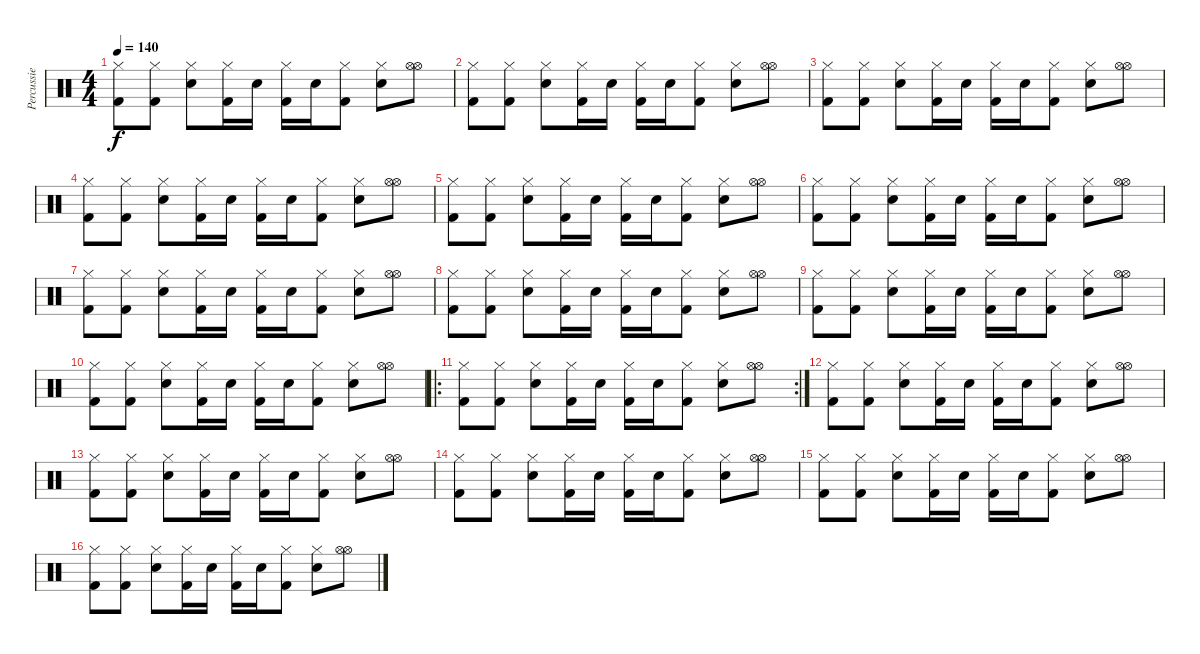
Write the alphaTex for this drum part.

\track ("Percussie" "Percussie") {instrument percussion}
\staff {score}
\articulation defaults
\ts (4 4)
\tempo 140
\clef neutral
\ks c
("Hi-Hat (closed)" "Kick (hit) 2").8{dy f} ("Hi-Hat (closed)" "Kick (hit) 2").8 ("Hi-Hat (closed)" "Snare (hit) 2").8 ("Hi-Hat (closed)" "Kick (hit) 2").16 "Snare (hit) 2".16 ("Hi-Hat (closed)" "Kick (hit) 2").16 "Snare (hit) 2".16 ("Hi-Hat (closed)" "Kick (hit) 2").8 ("Hi-Hat (closed)" "Snare (hit) 2").8 ("Hi-Hat (open)" "Hi-Hat (open)").8 |
("Hi-Hat (closed)" "Kick (hit) 2").8 ("Hi-Hat (closed)" "Kick (hit) 2").8 ("Hi-Hat (closed)" "Snare (hit) 2").8 ("Hi-Hat (closed)" "Kick (hit) 2").16 "Snare (hit) 2".16 ("Hi-Hat (closed)" "Kick (hit) 2").16 "Snare (hit) 2".16 ("Hi-Hat (closed)" "Kick (hit) 2").8 ("Hi-Hat (closed)" "Snare (hit) 2").8 ("Hi-Hat (open)" "Hi-Hat (open)").8 |
("Hi-Hat (closed)" "Kick (hit) 2").8 ("Hi-Hat (closed)" "Kick (hit) 2").8 ("Hi-Hat (closed)" "Snare (hit) 2").8 ("Hi-Hat (closed)" "Kick (hit) 2").16 "Snare (hit) 2".16 ("Hi-Hat (closed)" "Kick (hit) 2").16 "Snare (hit) 2".16 ("Hi-Hat (closed)" "Kick (hit) 2").8 ("Hi-Hat (closed)" "Snare (hit) 2").8 ("Hi-Hat (open)" "Hi-Hat (open)").8 |
("Hi-Hat (closed)" "Kick (hit) 2").8 ("Hi-Hat (closed)" "Kick (hit) 2").8 ("Hi-Hat (closed)" "Snare (hit) 2").8 ("Hi-Hat (closed)" "Kick (hit) 2").16 "Snare (hit) 2".16 ("Hi-Hat (closed)" "Kick (hit) 2").16 "Snare (hit) 2".16 ("Hi-Hat (closed)" "Kick (hit) 2").8 ("Hi-Hat (closed)" "Snare (hit) 2").8 ("Hi-Hat (open)" "Hi-Hat (open)").8 |
("Hi-Hat (closed)" "Kick (hit) 2").8 ("Hi-Hat (closed)" "Kick (hit) 2").8 ("Hi-Hat (closed)" "Snare (hit) 2").8 ("Hi-Hat (closed)" "Kick (hit) 2").16 "Snare (hit) 2".16 ("Hi-Hat (closed)" "Kick (hit) 2").16 "Snare (hit) 2".16 ("Hi-Hat (closed)" "Kick (hit) 2").8 ("Hi-Hat (closed)" "Snare (hit) 2").8 ("Hi-Hat (open)" "Hi-Hat (open)").8 |
("Hi-Hat (closed)" "Kick (hit) 2").8 ("Hi-Hat (closed)" "Kick (hit) 2").8 ("Hi-Hat (closed)" "Snare (hit) 2").8 ("Hi-Hat (closed)" "Kick (hit) 2").16 "Snare (hit) 2".16 ("Hi-Hat (closed)" "Kick (hit) 2").16 "Snare (hit) 2".16 ("Hi-Hat (closed)" "Kick (hit) 2").8 ("Hi-Hat (closed)" "Snare (hit) 2").8 ("Hi-Hat (open)" "Hi-Hat (open)").8 |
("Hi-Hat (closed)" "Kick (hit) 2").8 ("Hi-Hat (closed)" "Kick (hit) 2").8 ("Hi-Hat (closed)" "Snare (hit) 2").8 ("Hi-Hat (closed)" "Kick (hit) 2").16 "Snare (hit) 2".16 ("Hi-Hat (closed)" "Kick (hit) 2").16 "Snare (hit) 2".16 ("Hi-Hat (closed)" "Kick (hit) 2").8 ("Hi-Hat (closed)" "Snare (hit) 2").8 ("Hi-Hat (open)" "Hi-Hat (open)").8 |
("Hi-Hat (closed)" "Kick (hit) 2").8 ("Hi-Hat (closed)" "Kick (hit) 2").8 ("Hi-Hat (closed)" "Snare (hit) 2").8 ("Hi-Hat (closed)" "Kick (hit) 2").16 "Snare (hit) 2".16 ("Hi-Hat (closed)" "Kick (hit) 2").16 "Snare (hit) 2".16 ("Hi-Hat (closed)" "Kick (hit) 2").8 ("Hi-Hat (closed)" "Snare (hit) 2").8 ("Hi-Hat (open)" "Hi-Hat (open)").8 |
("Hi-Hat (closed)" "Kick (hit) 2").8 ("Hi-Hat (closed)" "Kick (hit) 2").8 ("Hi-Hat (closed)" "Snare (hit) 2").8 ("Hi-Hat (closed)" "Kick (hit) 2").16 "Snare (hit) 2".16 ("Hi-Hat (closed)" "Kick (hit) 2").16 "Snare (hit) 2".16 ("Hi-Hat (closed)" "Kick (hit) 2").8 ("Hi-Hat (closed)" "Snare (hit) 2").8 ("Hi-Hat (open)" "Hi-Hat (open)").8 |
("Hi-Hat (closed)" "Kick (hit) 2").8 ("Hi-Hat (closed)" "Kick (hit) 2").8 ("Hi-Hat (closed)" "Snare (hit) 2").8 ("Hi-Hat (closed)" "Kick (hit) 2").16 "Snare (hit) 2".16 ("Hi-Hat (closed)" "Kick (hit) 2").16 "Snare (hit) 2".16 ("Hi-Hat (closed)" "Kick (hit) 2").8 ("Hi-Hat (closed)" "Snare (hit) 2").8 ("Hi-Hat (open)" "Hi-Hat (open)").8 |
\ro
\rc 2
("Hi-Hat (closed)" "Kick (hit) 2").8 ("Hi-Hat (closed)" "Kick (hit) 2").8 ("Hi-Hat (closed)" "Snare (hit) 2").8 ("Hi-Hat (closed)" "Kick (hit) 2").16 "Snare (hit) 2".16 ("Hi-Hat (closed)" "Kick (hit) 2").16 "Snare (hit) 2".16 ("Hi-Hat (closed)" "Kick (hit) 2").8 ("Hi-Hat (closed)" "Snare (hit) 2").8 ("Hi-Hat (open)" "Hi-Hat (open)").8 |
("Hi-Hat (closed)" "Kick (hit) 2").8 ("Hi-Hat (closed)" "Kick (hit) 2").8 ("Hi-Hat (closed)" "Snare (hit) 2").8 ("Hi-Hat (closed)" "Kick (hit) 2").16 "Snare (hit) 2".16 ("Hi-Hat (closed)" "Kick (hit) 2").16 "Snare (hit) 2".16 ("Hi-Hat (closed)" "Kick (hit) 2").8 ("Hi-Hat (closed)" "Snare (hit) 2").8 ("Hi-Hat (open)" "Hi-Hat (open)").8 |
("Hi-Hat (closed)" "Kick (hit) 2").8 ("Hi-Hat (closed)" "Kick (hit) 2").8 ("Hi-Hat (closed)" "Snare (hit) 2").8 ("Hi-Hat (closed)" "Kick (hit) 2").16 "Snare (hit) 2".16 ("Hi-Hat (closed)" "Kick (hit) 2").16 "Snare (hit) 2".16 ("Hi-Hat (closed)" "Kick (hit) 2").8 ("Hi-Hat (closed)" "Snare (hit) 2").8 ("Hi-Hat (open)" "Hi-Hat (open)").8 |
("Hi-Hat (closed)" "Kick (hit) 2").8 ("Hi-Hat (closed)" "Kick (hit) 2").8 ("Hi-Hat (closed)" "Snare (hit) 2").8 ("Hi-Hat (closed)" "Kick (hit) 2").16 "Snare (hit) 2".16 ("Hi-Hat (closed)" "Kick (hit) 2").16 "Snare (hit) 2".16 ("Hi-Hat (closed)" "Kick (hit) 2").8 ("Hi-Hat (closed)" "Snare (hit) 2").8 ("Hi-Hat (open)" "Hi-Hat (open)").8 |
("Hi-Hat (closed)" "Kick (hit) 2").8 ("Hi-Hat (closed)" "Kick (hit) 2").8 ("Hi-Hat (closed)" "Snare (hit) 2").8 ("Hi-Hat (closed)" "Kick (hit) 2").16 "Snare (hit) 2".16 ("Hi-Hat (closed)" "Kick (hit) 2").16 "Snare (hit) 2".16 ("Hi-Hat (closed)" "Kick (hit) 2").8 ("Hi-Hat (closed)" "Snare (hit) 2").8 ("Hi-Hat (open)" "Hi-Hat (open)").8 |
("Hi-Hat (closed)" "Kick (hit) 2").8 ("Hi-Hat (closed)" "Kick (hit) 2").8 ("Hi-Hat (closed)" "Snare (hit) 2").8 ("Hi-Hat (closed)" "Kick (hit) 2").16 "Snare (hit) 2".16 ("Hi-Hat (closed)" "Kick (hit) 2").16 "Snare (hit) 2".16 ("Hi-Hat (closed)" "Kick (hit) 2").8 ("Hi-Hat (closed)" "Snare (hit) 2").8 ("Hi-Hat (open)" "Hi-Hat (open)").8
